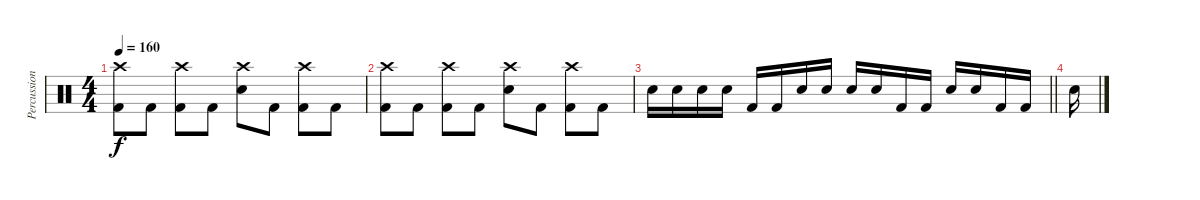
\track ("Percussion" "Percussion") {instrument percussion bank 255}
\staff {score}
\articulation defaults
\ts (4 4)
\tempo 160
\clef neutral
\ks c
("Crash high (hit)" "Kick (hit) 2").8{dy f} "Kick (hit) 2".8 ("Crash high (hit)" "Kick (hit) 2").8 "Kick (hit) 2".8 ("Crash high (hit)" "Electric Snare (hit)").8 "Kick (hit) 2".8 ("Crash high (hit)" "Kick (hit) 2").8 "Kick (hit) 2".8 |
("Crash high (hit)" "Kick (hit) 2").8 "Kick (hit) 2".8 ("Crash high (hit)" "Kick (hit) 2").8 "Kick (hit) 2".8 ("Crash high (hit)" "Electric Snare (hit)").8 "Kick (hit) 2".8 ("Crash high (hit)" "Kick (hit) 2").8 "Kick (hit) 2".8 |
\barLineRight lightlight "Electric Snare (hit)".16 "Electric Snare (hit)".16 "Electric Snare (hit)".16 "Electric Snare (hit)".16 "Kick (hit) 2".16 "Kick (hit) 2".16 "Electric Snare (hit)".16 "Electric Snare (hit)".16 "Electric Snare (hit)".16 "Electric Snare (hit)".16 "Kick (hit) 2".16 "Kick (hit) 2".16 "Electric Snare (hit)".16 "Electric Snare (hit)".16 "Kick (hit) 2".16 "Kick (hit) 2".16
|
"Electric Snare (hit)".16
